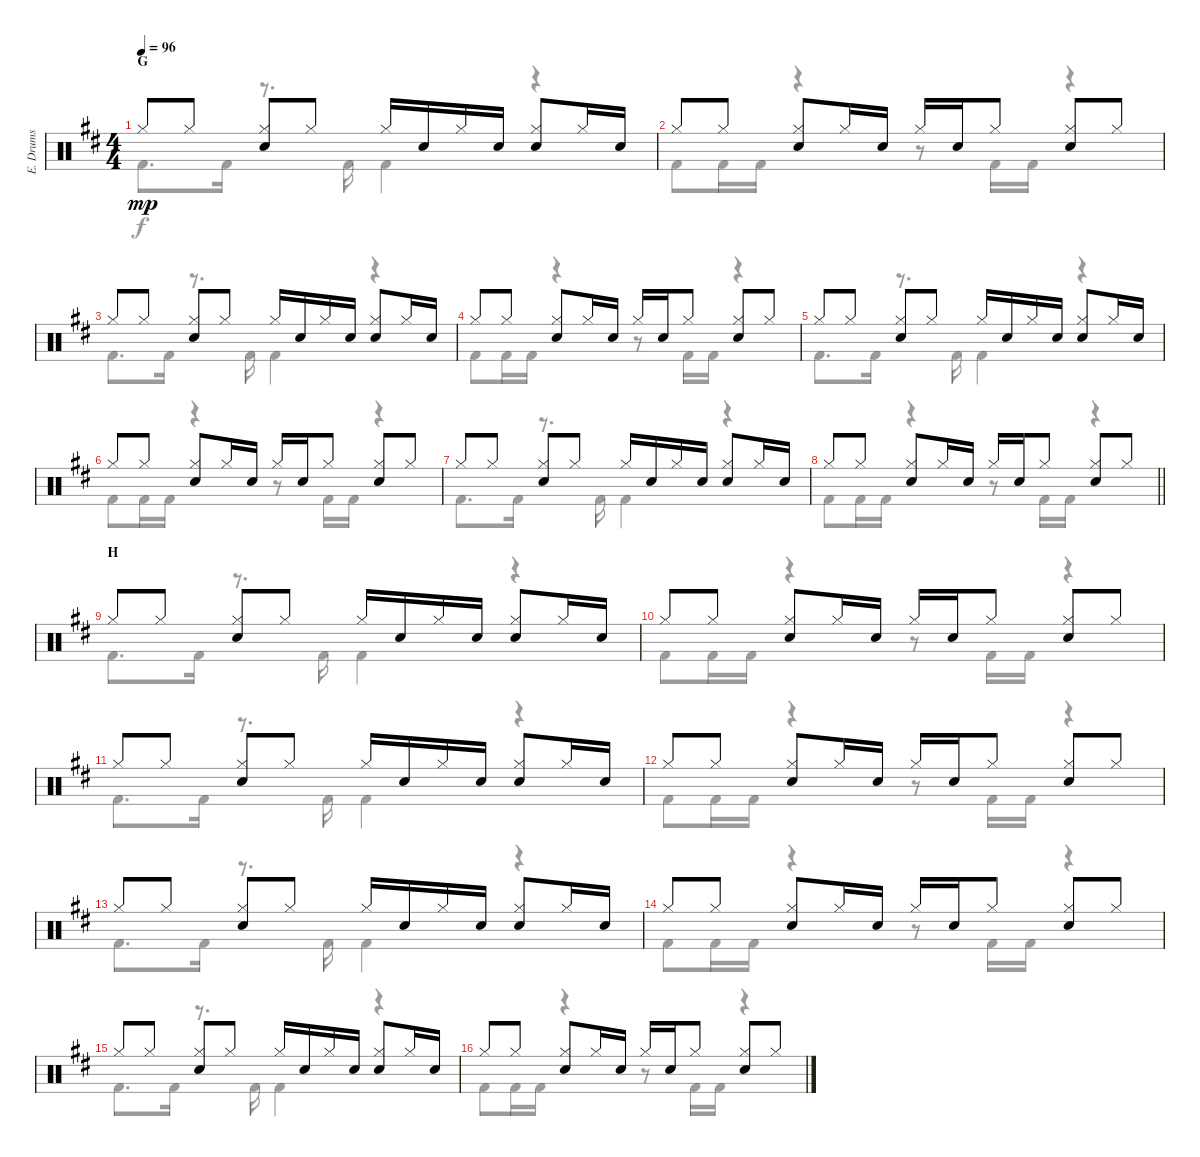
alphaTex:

\track ("E. Drums" "E. Drums") {instrument percussion}
\staff {score}
\articulation defaults
\voice
\ts (4 4)
\section ("" "G")
\tempo 96
\clef neutral
\ks d "Hi-Hat (closed)".8{dy mp} "Hi-Hat (closed)".8
("Hi-Hat (closed)" "Electric Snare (hit)").8 "Hi-Hat (closed)".8 "Hi-Hat (closed)".16 "Electric Snare (hit)".16 "Hi-Hat (closed)".16 "Electric Snare (hit)".16 ("Hi-Hat (closed)" "Electric Snare (hit)").8 "Hi-Hat (closed)".16 "Electric Snare (hit)".16 |
"Hi-Hat (closed)".8 "Hi-Hat (closed)".8 ("Hi-Hat (closed)" "Electric Snare (hit)").8 "Hi-Hat (closed)".16 "Electric Snare (hit)".16 "Hi-Hat (closed)".16 "Electric Snare (hit)".16 "Hi-Hat (closed)".8 ("Hi-Hat (closed)" "Electric Snare (hit)").8 "Hi-Hat (closed)".8 |
"Hi-Hat (closed)".8 "Hi-Hat (closed)".8 ("Hi-Hat (closed)" "Electric Snare (hit)").8 "Hi-Hat (closed)".8 "Hi-Hat (closed)".16 "Electric Snare (hit)".16 "Hi-Hat (closed)".16 "Electric Snare (hit)".16 ("Hi-Hat (closed)" "Electric Snare (hit)").8 "Hi-Hat (closed)".16 "Electric Snare (hit)".16 |
"Hi-Hat (closed)".8 "Hi-Hat (closed)".8 ("Hi-Hat (closed)" "Electric Snare (hit)").8 "Hi-Hat (closed)".16 "Electric Snare (hit)".16 "Hi-Hat (closed)".16 "Electric Snare (hit)".16 "Hi-Hat (closed)".8 ("Hi-Hat (closed)" "Electric Snare (hit)").8 "Hi-Hat (closed)".8 |
"Hi-Hat (closed)".8 "Hi-Hat (closed)".8 ("Hi-Hat (closed)" "Electric Snare (hit)").8 "Hi-Hat (closed)".8 "Hi-Hat (closed)".16 "Electric Snare (hit)".16 "Hi-Hat (closed)".16 "Electric Snare (hit)".16 ("Hi-Hat (closed)" "Electric Snare (hit)").8 "Hi-Hat (closed)".16 "Electric Snare (hit)".16 |
"Hi-Hat (closed)".8 "Hi-Hat (closed)".8 ("Hi-Hat (closed)" "Electric Snare (hit)").8 "Hi-Hat (closed)".16 "Electric Snare (hit)".16 "Hi-Hat (closed)".16 "Electric Snare (hit)".16 "Hi-Hat (closed)".8 ("Hi-Hat (closed)" "Electric Snare (hit)").8 "Hi-Hat (closed)".8 |
"Hi-Hat (closed)".8 "Hi-Hat (closed)".8 ("Hi-Hat (closed)" "Electric Snare (hit)").8 "Hi-Hat (closed)".8 "Hi-Hat (closed)".16 "Electric Snare (hit)".16 "Hi-Hat (closed)".16 "Electric Snare (hit)".16 ("Hi-Hat (closed)" "Electric Snare (hit)").8 "Hi-Hat (closed)".16 "Electric Snare (hit)".16 |
\barLineRight lightlight "Hi-Hat (closed)".8 "Hi-Hat (closed)".8
("Hi-Hat (closed)" "Electric Snare (hit)").8 "Hi-Hat (closed)".16 "Electric Snare (hit)".16 "Hi-Hat (closed)".16 "Electric Snare (hit)".16 "Hi-Hat (closed)".8 ("Hi-Hat (closed)" "Electric Snare (hit)").8 "Hi-Hat (closed)".8 |
\section ("" "H")
"Hi-Hat (closed)".8 "Hi-Hat (closed)".8 ("Hi-Hat (closed)" "Electric Snare (hit)").8 "Hi-Hat (closed)".8 "Hi-Hat (closed)".16 "Electric Snare (hit)".16 "Hi-Hat (closed)".16 "Electric Snare (hit)".16 ("Hi-Hat (closed)" "Electric Snare (hit)").8 "Hi-Hat (closed)".16 "Electric Snare (hit)".16 |
"Hi-Hat (closed)".8 "Hi-Hat (closed)".8 ("Hi-Hat (closed)" "Electric Snare (hit)").8 "Hi-Hat (closed)".16 "Electric Snare (hit)".16 "Hi-Hat (closed)".16 "Electric Snare (hit)".16 "Hi-Hat (closed)".8 ("Hi-Hat (closed)" "Electric Snare (hit)").8 "Hi-Hat (closed)".8 |
"Hi-Hat (closed)".8 "Hi-Hat (closed)".8 ("Hi-Hat (closed)" "Electric Snare (hit)").8 "Hi-Hat (closed)".8 "Hi-Hat (closed)".16 "Electric Snare (hit)".16 "Hi-Hat (closed)".16 "Electric Snare (hit)".16 ("Hi-Hat (closed)" "Electric Snare (hit)").8 "Hi-Hat (closed)".16 "Electric Snare (hit)".16 |
"Hi-Hat (closed)".8 "Hi-Hat (closed)".8 ("Hi-Hat (closed)" "Electric Snare (hit)").8 "Hi-Hat (closed)".16 "Electric Snare (hit)".16 "Hi-Hat (closed)".16 "Electric Snare (hit)".16 "Hi-Hat (closed)".8 ("Hi-Hat (closed)" "Electric Snare (hit)").8 "Hi-Hat (closed)".8 |
"Hi-Hat (closed)".8 "Hi-Hat (closed)".8 ("Hi-Hat (closed)" "Electric Snare (hit)").8 "Hi-Hat (closed)".8 "Hi-Hat (closed)".16 "Electric Snare (hit)".16 "Hi-Hat (closed)".16 "Electric Snare (hit)".16 ("Hi-Hat (closed)" "Electric Snare (hit)").8 "Hi-Hat (closed)".16 "Electric Snare (hit)".16 |
"Hi-Hat (closed)".8 "Hi-Hat (closed)".8 ("Hi-Hat (closed)" "Electric Snare (hit)").8 "Hi-Hat (closed)".16 "Electric Snare (hit)".16 "Hi-Hat (closed)".16 "Electric Snare (hit)".16 "Hi-Hat (closed)".8 ("Hi-Hat (closed)" "Electric Snare (hit)").8 "Hi-Hat (closed)".8 |
"Hi-Hat (closed)".8 "Hi-Hat (closed)".8 ("Hi-Hat (closed)" "Electric Snare (hit)").8 "Hi-Hat (closed)".8 "Hi-Hat (closed)".16 "Electric Snare (hit)".16 "Hi-Hat (closed)".16 "Electric Snare (hit)".16 ("Hi-Hat (closed)" "Electric Snare (hit)").8 "Hi-Hat (closed)".16 "Electric Snare (hit)".16 |
"Hi-Hat (closed)".8 "Hi-Hat (closed)".8 ("Hi-Hat (closed)" "Electric Snare (hit)").8 "Hi-Hat (closed)".16 "Electric Snare (hit)".16 "Hi-Hat (closed)".16 "Electric Snare (hit)".16 "Hi-Hat (closed)".8 ("Hi-Hat (closed)" "Electric Snare (hit)").8 "Hi-Hat (closed)".8
\voice
\clef neutral
\ottava regular
\simile none
\ks d "Kick (hit) 2".8{d dy f} "Kick (hit) 2".16
r.8{d} "Kick (hit) 2".16 "Kick (hit) 2".4 r.4 |
"Kick (hit) 2".8 "Kick (hit) 2".16 "Kick (hit) 2".16 r.4 r.8 "Kick (hit) 2".16 "Kick (hit) 2".16 r.4 |
"Kick (hit) 2".8{d} "Kick (hit) 2".16 r.8{d} "Kick (hit) 2".16 "Kick (hit) 2".4 r.4 |
"Kick (hit) 2".8 "Kick (hit) 2".16 "Kick (hit) 2".16 r.4 r.8 "Kick (hit) 2".16 "Kick (hit) 2".16 r.4 |
"Kick (hit) 2".8{d} "Kick (hit) 2".16 r.8{d} "Kick (hit) 2".16 "Kick (hit) 2".4 r.4 |
"Kick (hit) 2".8 "Kick (hit) 2".16 "Kick (hit) 2".16 r.4 r.8 "Kick (hit) 2".16 "Kick (hit) 2".16 r.4 |
"Kick (hit) 2".8{d} "Kick (hit) 2".16 r.8{d} "Kick (hit) 2".16 "Kick (hit) 2".4 r.4 |
\barLineRight lightlight "Kick (hit) 2".8 "Kick (hit) 2".16 "Kick (hit) 2".16
r.4 r.8 "Kick (hit) 2".16 "Kick (hit) 2".16 r.4 |
"Kick (hit) 2".8{d} "Kick (hit) 2".16 r.8{d} "Kick (hit) 2".16 "Kick (hit) 2".4 r.4 |
"Kick (hit) 2".8 "Kick (hit) 2".16 "Kick (hit) 2".16 r.4 r.8 "Kick (hit) 2".16 "Kick (hit) 2".16 r.4 |
"Kick (hit) 2".8{d} "Kick (hit) 2".16 r.8{d} "Kick (hit) 2".16 "Kick (hit) 2".4 r.4 |
"Kick (hit) 2".8 "Kick (hit) 2".16 "Kick (hit) 2".16 r.4 r.8 "Kick (hit) 2".16 "Kick (hit) 2".16 r.4 |
"Kick (hit) 2".8{d} "Kick (hit) 2".16 r.8{d} "Kick (hit) 2".16 "Kick (hit) 2".4 r.4 |
"Kick (hit) 2".8 "Kick (hit) 2".16 "Kick (hit) 2".16 r.4 r.8 "Kick (hit) 2".16 "Kick (hit) 2".16 r.4 |
"Kick (hit) 2".8{d} "Kick (hit) 2".16 r.8{d} "Kick (hit) 2".16 "Kick (hit) 2".4 r.4 |
"Kick (hit) 2".8 "Kick (hit) 2".16 "Kick (hit) 2".16 r.4 r.8 "Kick (hit) 2".16 "Kick (hit) 2".16 r.4
